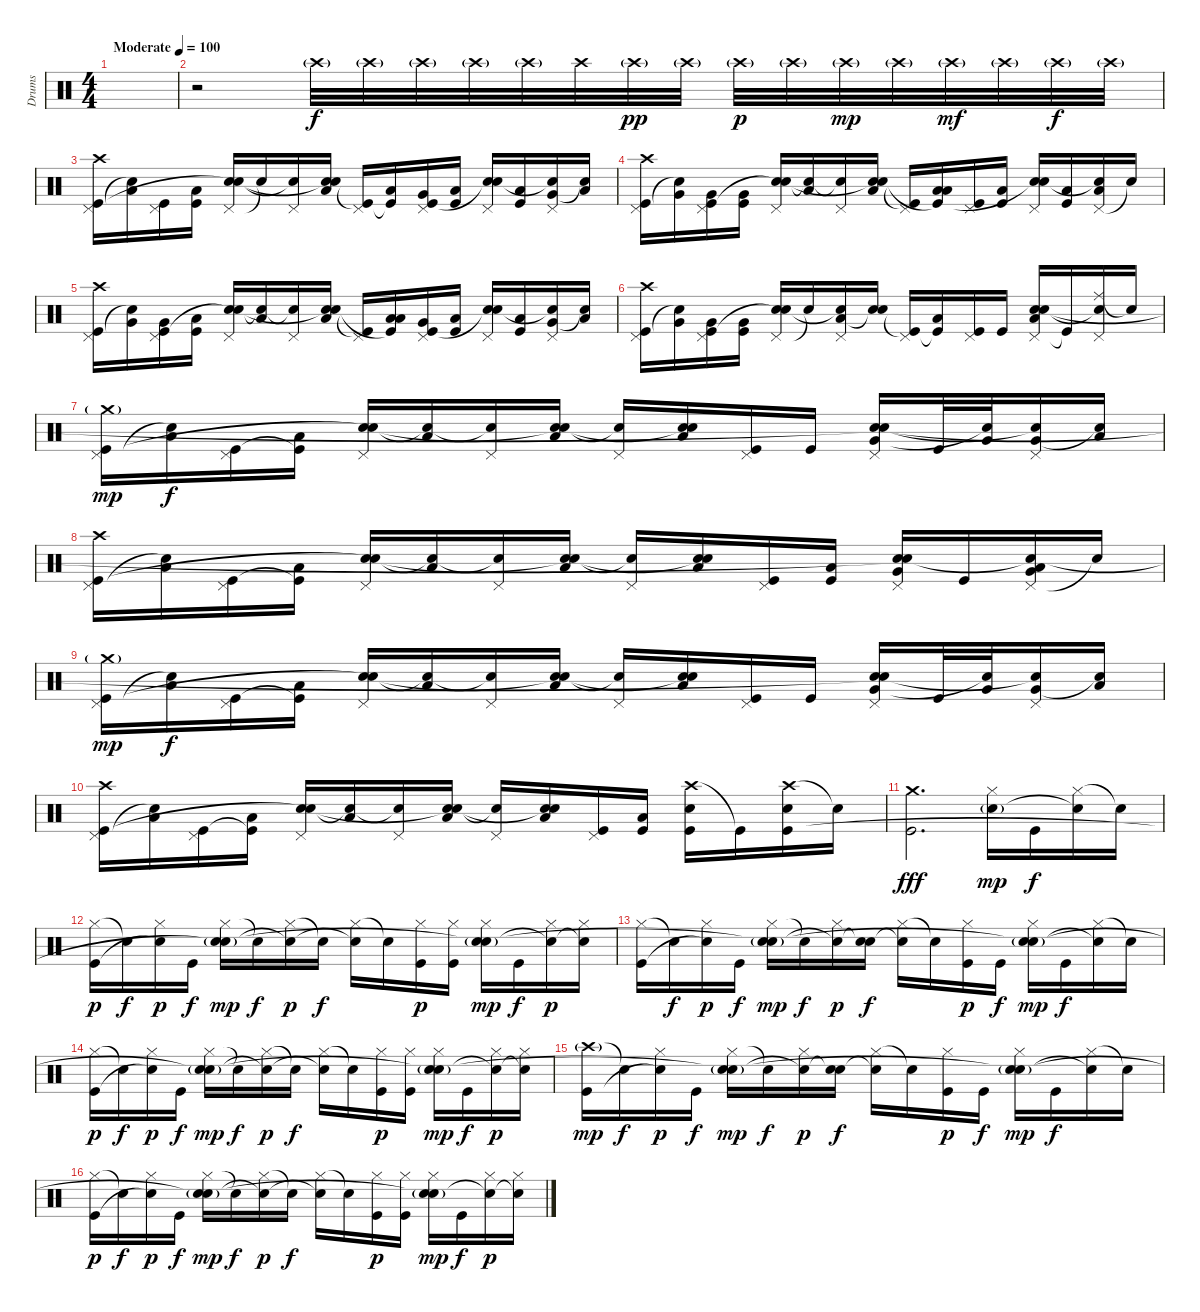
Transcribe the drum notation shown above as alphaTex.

\track ("Drums" "Drums") {instrument percussion}
\staff {score}
\articulation defaults
\ts (4 4)
\tempo (100 "Moderate")
\clef neutral
\ks c
|
r.2 "Crash high (hit)"{g}.32 "Crash high (hit)"{g}.32 "Crash high (hit)"{g}.32 "Crash high (hit)"{g}.32 "Crash high (hit)"{g}.32 "Crash high (hit)".32 "Crash high (hit)"{g}.32{dy pp} "Crash high (hit)"{g}.32 "Crash high (hit)"{g}.32{dy p} "Crash high (hit)"{g}.32 "Crash high (hit)"{g}.32{dy mp} "Crash high (hit)"{g}.32 "Crash high (hit)"{g}.32{dy mf} "Crash high (hit)"{g}.32 "Crash high (hit)"{g}.32{dy f} "Crash high (hit)"{g}.32 |
("Crash high (hit)" "Pedal Hi-Hat (hit)" "Kick (hit)").16 ("Low Floor Tom (hit)" "Snare (hit)"{t}).16 ("Pedal Hi-Hat (hit)" "Kick (hit)").16 ("Low Floor Tom (hit)" "Kick (hit)").16 ("Pedal Hi-Hat (hit)" "Electric Snare (hit)" "Snare (hit)"{t}).16 "Snare (hit)"{t}.16 ("Pedal Hi-Hat (hit)" "Snare (hit)"{t}).16 ("Low Floor Tom (hit)" "Electric Snare (hit)" "Snare (hit)"{t}).16 ("Pedal Hi-Hat (hit)" "Kick (hit)"{t}).16 ("Low Tom (hit)" "Kick (hit)"{t}).16 ("Pedal Hi-Hat (hit)" "Very Low Tom (hit)" "Kick (hit)").16 ("Low Floor Tom (hit)" "Kick (hit)").16 ("Pedal Hi-Hat (hit)" "Electric Snare (hit)" "Snare (hit)"{t}).16 ("Low Tom (hit)" "Kick (hit)").16 ("Pedal Hi-Hat (hit)" "Very Low Tom (hit)" "Snare (hit)"{t}).16 ("Low Floor Tom (hit)" "Snare (hit)"{t}).16 |
("Crash high (hit)" "Pedal Hi-Hat (hit)" "Kick (hit)").16 ("Very Low Tom (hit)" "Snare (hit)"{t}).16 ("Pedal Hi-Hat (hit)" "Very Low Tom (hit)" "Kick (hit)").16 ("Very Low Tom (hit)" "Kick (hit)").16 ("Pedal Hi-Hat (hit)" "Electric Snare (hit)" "Snare (hit)"{t}).16 ("Low Floor Tom (hit)" "Snare (hit)"{t}).16 ("Pedal Hi-Hat (hit)" "Snare (hit)"{t}).16 ("Low Floor Tom (hit)" "Electric Snare (hit)" "Snare (hit)"{t}).16 ("Pedal Hi-Hat (hit)" "Kick (hit)"{t}).16 ("Low Tom (hit)" "Low Floor Tom (hit)" "Kick (hit)"{t}).16 ("Pedal Hi-Hat (hit)" "Kick (hit)").16 ("Low Floor Tom (hit)" "Kick (hit)").16 ("Pedal Hi-Hat (hit)" "Electric Snare (hit)" "Snare (hit)"{t}).16 ("Low Tom (hit)" "Kick (hit)").16 ("Pedal Hi-Hat (hit)" "Low Floor Tom (hit)" "Snare (hit)"{t}).16 "Snare (hit)"{t}.16 |
("Crash high (hit)" "Pedal Hi-Hat (hit)" "Kick (hit)").16 ("Very Low Tom (hit)" "Snare (hit)"{t}).16 ("Pedal Hi-Hat (hit)" "Very Low Tom (hit)" "Kick (hit)").16 ("Low Floor Tom (hit)" "Kick (hit)").16 ("Pedal Hi-Hat (hit)" "Electric Snare (hit)" "Snare (hit)"{t}).16 ("Low Floor Tom (hit)" "Snare (hit)"{t}).16 ("Pedal Hi-Hat (hit)" "Snare (hit)"{t}).16 ("Low Floor Tom (hit)" "Electric Snare (hit)" "Snare (hit)"{t}).16 ("Pedal Hi-Hat (hit)" "Kick (hit)"{t}).16 ("Low Tom (hit)" "Low Floor Tom (hit)" "Kick (hit)"{t}).16 ("Pedal Hi-Hat (hit)" "Very Low Tom (hit)" "Kick (hit)").16 ("Low Floor Tom (hit)" "Kick (hit)").16 ("Pedal Hi-Hat (hit)" "Electric Snare (hit)" "Snare (hit)"{t}).16 ("Low Tom (hit)" "Kick (hit)").16 ("Pedal Hi-Hat (hit)" "Very Low Tom (hit)" "Snare (hit)"{t}).16 ("Low Floor Tom (hit)" "Snare (hit)"{t}).16 |
("Crash high (hit)" "Pedal Hi-Hat (hit)" "Kick (hit)").16 ("Very Low Tom (hit)" "Snare (hit)"{t}).16 ("Pedal Hi-Hat (hit)" "Very Low Tom (hit)" "Kick (hit)").16 ("Very Low Tom (hit)" "Kick (hit)").16 ("Pedal Hi-Hat (hit)" "Electric Snare (hit)" "Snare (hit)"{t}).16 "Snare (hit)"{t}.16 ("Pedal Hi-Hat (hit)" "Low Floor Tom (hit)" "Snare (hit)"{t}).16 ("Electric Snare (hit)" "Snare (hit)"{t}).16 ("Pedal Hi-Hat (hit)" "Kick (hit)"{t}).16 ("Low Tom (hit)" "Kick (hit)"{t}).16 ("Pedal Hi-Hat (hit)" "Kick (hit)").16 "Kick (hit)".16 ("Pedal Hi-Hat (hit)" "Low Tom (hit)" "Electric Snare (hit)" "Snare (hit)").16 "Kick (hit)"{t}.16 ("Ride (middle)" "Pedal Hi-Hat (hit)" "Snare (hit)"{t}).16 "Snare (hit)"{t}.16 |
("Crash medium (hit)"{g} "Pedal Hi-Hat (hit)" "Kick (hit)").16{dy mp} ("Low Floor Tom (hit)" "Snare (hit)"{t}).16{dy f} ("Pedal Hi-Hat (hit)" "Kick (hit)").16 ("Low Floor Tom (hit)" "Kick (hit)"{t}).16 ("Pedal Hi-Hat (hit)" "Electric Snare (hit)" "Snare (hit)"{t}).16 ("Low Floor Tom (hit)" "Snare (hit)"{t}).16 ("Pedal Hi-Hat (hit)" "Snare (hit)"{t}).16 ("Low Floor Tom (hit)" "Electric Snare (hit)" "Snare (hit)"{t}).16 ("Pedal Hi-Hat (hit)" "Snare (hit)"{t}).16 ("Low Floor Tom (hit)" "Electric Snare (hit)" "Snare (hit)"{t}).16 ("Pedal Hi-Hat (hit)" "Kick (hit)").16 "Kick (hit)".16 ("Pedal Hi-Hat (hit)" "Very Low Tom (hit)" "Electric Snare (hit)" "Snare (hit)"{t}).16 "Kick (hit)".32 ("Very Low Tom (hit)" "Snare (hit)"{t}).32 ("Pedal Hi-Hat (hit)" "Very Low Tom (hit)" "Snare (hit)"{t}).16 ("Low Floor Tom (hit)" "Snare (hit)"{t}).16 |
("Crash high (hit)" "Pedal Hi-Hat (hit)" "Kick (hit)").16 ("Low Floor Tom (hit)" "Snare (hit)"{t}).16 ("Pedal Hi-Hat (hit)" "Kick (hit)").16 ("Low Floor Tom (hit)" "Kick (hit)"{t}).16 ("Pedal Hi-Hat (hit)" "Electric Snare (hit)" "Snare (hit)"{t}).16 ("Low Floor Tom (hit)" "Snare (hit)"{t}).16 ("Pedal Hi-Hat (hit)" "Snare (hit)"{t}).16 ("Low Floor Tom (hit)" "Electric Snare (hit)" "Snare (hit)"{t}).16 ("Pedal Hi-Hat (hit)" "Snare (hit)"{t}).16 ("Low Floor Tom (hit)" "Electric Snare (hit)" "Snare (hit)"{t}).16 ("Pedal Hi-Hat (hit)" "Kick (hit)").16 ("Low Floor Tom (hit)" "Kick (hit)").16 ("Pedal Hi-Hat (hit)" "Very Low Tom (hit)" "Electric Snare (hit)" "Snare (hit)"{t}).16 "Kick (hit)".16 ("Pedal Hi-Hat (hit)" "Very Low Tom (hit)" "Low Floor Tom (hit)" "Snare (hit)"{t}).16 "Snare (hit)"{t}.16 |
("Crash medium (hit)"{g} "Pedal Hi-Hat (hit)" "Kick (hit)").16{dy mp} ("Low Floor Tom (hit)" "Snare (hit)"{t}).16{dy f} ("Pedal Hi-Hat (hit)" "Kick (hit)").16 ("Low Floor Tom (hit)" "Kick (hit)"{t}).16 ("Pedal Hi-Hat (hit)" "Electric Snare (hit)" "Snare (hit)"{t}).16 ("Low Floor Tom (hit)" "Snare (hit)"{t}).16 ("Pedal Hi-Hat (hit)" "Snare (hit)"{t}).16 ("Low Floor Tom (hit)" "Electric Snare (hit)" "Snare (hit)"{t}).16 ("Pedal Hi-Hat (hit)" "Snare (hit)"{t}).16 ("Low Floor Tom (hit)" "Electric Snare (hit)" "Snare (hit)"{t}).16 ("Pedal Hi-Hat (hit)" "Kick (hit)").16 "Kick (hit)".16 ("Pedal Hi-Hat (hit)" "Very Low Tom (hit)" "Electric Snare (hit)" "Snare (hit)"{t}).16 "Kick (hit)".32 ("Very Low Tom (hit)" "Snare (hit)"{t}).32 ("Pedal Hi-Hat (hit)" "Very Low Tom (hit)" "Snare (hit)"{t}).16 ("Low Floor Tom (hit)" "Snare (hit)"{t}).16 |
("Crash high (hit)" "Pedal Hi-Hat (hit)" "Kick (hit)").16 ("Low Floor Tom (hit)" "Snare (hit)"{t}).16 ("Pedal Hi-Hat (hit)" "Kick (hit)").16 ("Low Floor Tom (hit)" "Kick (hit)"{t}).16 ("Pedal Hi-Hat (hit)" "Electric Snare (hit)" "Snare (hit)"{t}).16 ("Low Floor Tom (hit)" "Snare (hit)"{t}).16 ("Pedal Hi-Hat (hit)" "Snare (hit)"{t}).16 ("Low Floor Tom (hit)" "Electric Snare (hit)" "Snare (hit)"{t}).16 ("Pedal Hi-Hat (hit)" "Snare (hit)"{t}).16 ("Low Floor Tom (hit)" "Electric Snare (hit)" "Snare (hit)"{t}).16 ("Pedal Hi-Hat (hit)" "Kick (hit)").16 ("Low Floor Tom (hit)" "Kick (hit)").16 ("Crash high (hit)" "Electric Snare (hit)" "Kick (hit)").16 "Kick (hit)"{t}.16 ("Crash high (hit)" "Electric Snare (hit)" "Kick (hit)").16 "Snare (hit)"{t}.16 |
("Crash medium (hit)" "Kick (hit)").2{d dy fff} ("Hi-Hat (closed)" "Snare (hit) 2"{g}).16{dy mp} "Kick (hit)".16{dy f} ("Hi-Hat (closed)" "Snare (hit)"{t}).16 "Snare (hit)"{t}.16 |
("Hi-Hat (closed)" "Kick (hit)").16{dy p} "Snare (hit)"{t}.16{dy f} ("Hi-Hat (closed)" "Snare (hit)"{t}).16{dy p} "Kick (hit)".16{dy f} ("Hi-Hat (closed)" "Snare (hit) 2"{g} "Snare (hit)"{t}).16{dy mp} "Snare (hit)"{t}.16{dy f} ("Hi-Hat (closed)" "Snare (hit)"{t}).16{dy p} "Snare (hit)"{t}.16{dy f} ("Hi-Hat (closed)" "Snare (hit)"{t}).16 "Snare (hit)"{t}.16 ("Hi-Hat (closed)" "Kick (hit)").16{dy p} ("Hi-Hat (closed)" "Kick (hit)").16 ("Hi-Hat (closed)" "Snare (hit) 2"{g} "Snare (hit)"{t}).16{dy mp} "Kick (hit)".16{dy f} ("Hi-Hat (closed)" "Snare (hit)"{t}).16{dy p} ("Hi-Hat (closed)" "Snare (hit)"{t}).16 |
("Hi-Hat (closed)" "Kick (hit)").16 "Snare (hit)"{t}.16{dy f} ("Hi-Hat (closed)" "Snare (hit)"{t}).16{dy p} "Kick (hit)".16{dy f} ("Hi-Hat (closed)" "Snare (hit) 2"{g} "Snare (hit)"{t}).16{dy mp} "Snare (hit)"{t}.16{dy f} ("Hi-Hat (closed)" "Snare (hit)"{t}).16{dy p} ("Snare (hit) 2" "Snare (hit)"{t}).16{dy f} ("Hi-Hat (closed)" "Snare (hit)"{t}).16 "Snare (hit)"{t}.16 ("Hi-Hat (closed)" "Kick (hit)").16{dy p} "Kick (hit)".16{dy f} ("Hi-Hat (closed)" "Snare (hit) 2"{g} "Snare (hit)"{t}).16{dy mp} "Kick (hit)".16{dy f} ("Hi-Hat (closed)" "Snare (hit)"{t}).16 "Snare (hit)"{t}.16 |
("Hi-Hat (closed)" "Kick (hit)").16{dy p} "Snare (hit)"{t}.16{dy f} ("Hi-Hat (closed)" "Snare (hit)"{t}).16{dy p} "Kick (hit)".16{dy f} ("Hi-Hat (closed)" "Snare (hit) 2"{g} "Snare (hit)"{t}).16{dy mp} "Snare (hit)"{t}.16{dy f} ("Hi-Hat (closed)" "Snare (hit)"{t}).16{dy p} "Snare (hit)"{t}.16{dy f} ("Hi-Hat (closed)" "Snare (hit)"{t}).16 "Snare (hit)"{t}.16 ("Hi-Hat (closed)" "Kick (hit)").16{dy p} ("Hi-Hat (closed)" "Kick (hit)").16 ("Hi-Hat (closed)" "Snare (hit) 2"{g} "Snare (hit)"{t}).16{dy mp} "Kick (hit)".16{dy f} ("Hi-Hat (closed)" "Snare (hit)"{t}).16{dy p} ("Hi-Hat (closed)" "Snare (hit)"{t}).16 |
("Crash high (hit)"{g} "Kick (hit)").16{dy mp} "Snare (hit)"{t}.16{dy f} ("Hi-Hat (closed)" "Snare (hit)"{t}).16{dy p} "Kick (hit)".16{dy f} ("Hi-Hat (closed)" "Snare (hit) 2"{g} "Snare (hit)"{t}).16{dy mp} "Snare (hit)"{t}.16{dy f} ("Hi-Hat (closed)" "Snare (hit)"{t}).16{dy p} ("Snare (hit) 2" "Snare (hit)"{t}).16{dy f} ("Hi-Hat (closed)" "Snare (hit)"{t}).16 "Snare (hit)"{t}.16 ("Hi-Hat (closed)" "Kick (hit)").16{dy p} "Kick (hit)".16{dy f} ("Hi-Hat (closed)" "Snare (hit) 2"{g} "Snare (hit)"{t}).16{dy mp} "Kick (hit)".16{dy f} ("Hi-Hat (closed)" "Snare (hit)"{t}).16 "Snare (hit)"{t}.16 |
("Hi-Hat (closed)" "Kick (hit)").16{dy p} "Snare (hit)"{t}.16{dy f} ("Hi-Hat (closed)" "Snare (hit)"{t}).16{dy p} "Kick (hit)".16{dy f} ("Hi-Hat (closed)" "Snare (hit) 2"{g} "Snare (hit)"{t}).16{dy mp} "Snare (hit)"{t}.16{dy f} ("Hi-Hat (closed)" "Snare (hit)"{t}).16{dy p} "Snare (hit)"{t}.16{dy f} ("Hi-Hat (closed)" "Snare (hit)"{t}).16 "Snare (hit)"{t}.16 ("Hi-Hat (closed)" "Kick (hit)").16{dy p} ("Hi-Hat (closed)" "Kick (hit)").16 ("Hi-Hat (closed)" "Snare (hit) 2"{g} "Snare (hit)"{t}).16{dy mp} "Kick (hit)".16{dy f} ("Hi-Hat (closed)" "Snare (hit)"{t}).16{dy p} ("Hi-Hat (closed)" "Snare (hit)"{t}).16
